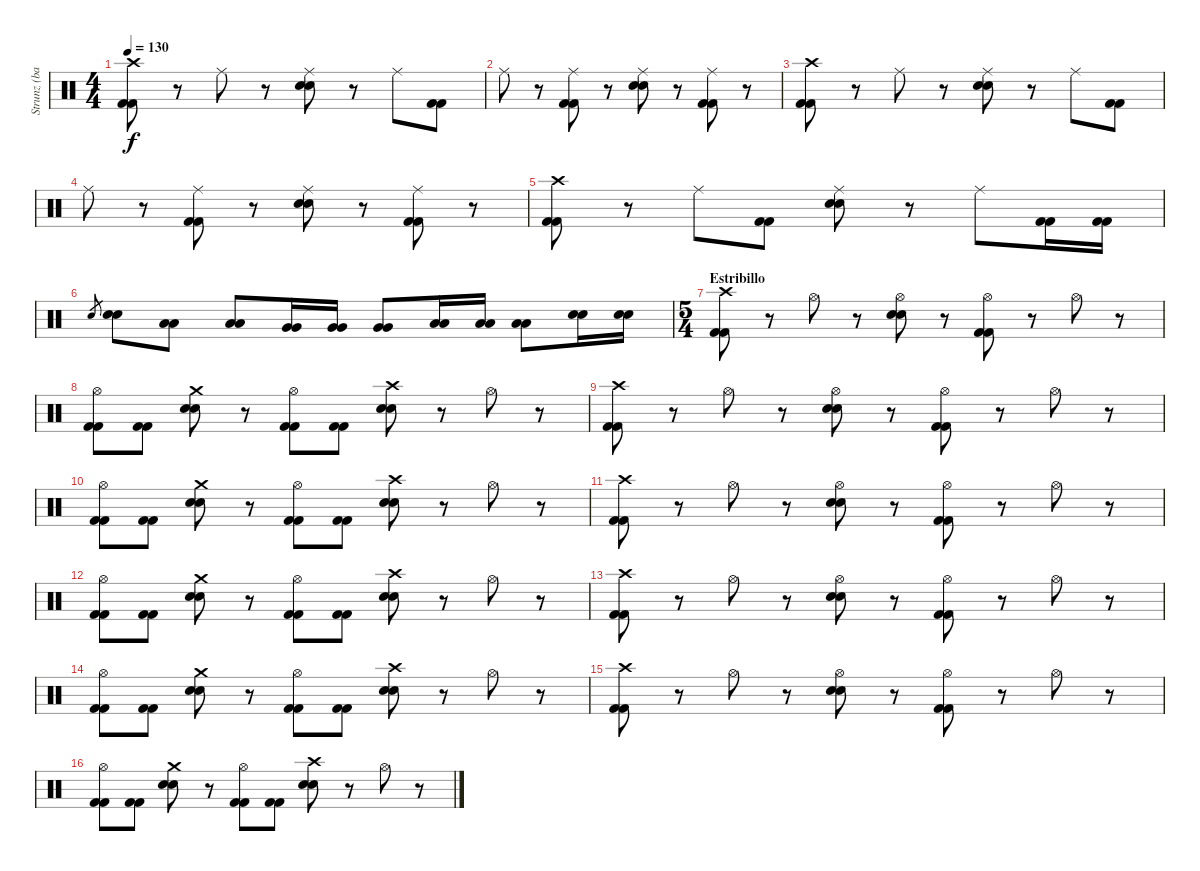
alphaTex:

\track ("Strunz (bateria)" "Strunz (ba") {instrument percussion}
\staff {score}
\articulation defaults
\ts (4 4)
\tempo 130
\clef neutral
\ks c
("Crash high (hit)" "Kick (hit) 2" "Kick (hit) 2").8{dy f} r.8 "Ride (middle)".8 r.8 ("Ride (middle)" "Snare (hit) 2" "Snare (hit) 2").8 r.8 "Ride (middle)".8 ("Kick (hit) 2" "Kick (hit) 2").8 |
"Ride (middle)".8 r.8 ("Ride (middle)" "Kick (hit) 2" "Kick (hit) 2").8 r.8 ("Ride (middle)" "Snare (hit) 2" "Snare (hit) 2").8 r.8 ("Ride (middle)" "Kick (hit) 2" "Kick (hit) 2").8 r.8 |
("Crash high (hit)" "Kick (hit) 2" "Kick (hit) 2").8 r.8 "Ride (middle)".8 r.8 ("Ride (middle)" "Snare (hit) 2" "Snare (hit) 2").8 r.8 "Ride (middle)".8 ("Kick (hit) 2" "Kick (hit) 2").8 |
"Ride (middle)".8 r.8 ("Ride (middle)" "Kick (hit) 2" "Kick (hit) 2").8 r.8 ("Ride (middle)" "Snare (hit) 2" "Snare (hit) 2").8 r.8 ("Ride (middle)" "Kick (hit) 2" "Kick (hit) 2").8 r.8 |
("Crash high (hit)" "Kick (hit) 2" "Kick (hit) 2").8 r.8 "Ride (middle)".8 ("Kick (hit) 2" "Kick (hit) 2").8 ("Ride (middle)" "Snare (hit) 2" "Snare (hit) 2").8 r.8 "Ride (middle)".8 ("Kick (hit) 2" "Kick (hit) 2").16 ("Kick (hit) 2" "Kick (hit) 2").16 |
"Snare (hit) 2".8{gr} ("Snare (hit) 2" "Snare (hit) 2").8 ("Low Tom (hit)" "Low Tom (hit)").8 ("Low Tom (hit)" "Low Tom (hit)").8 ("Very Low Tom (hit)" "Very Low Tom (hit)").16 ("Very Low Tom (hit)" "Very Low Tom (hit)").16 ("Very Low Tom (hit)" "Very Low Tom (hit)").8 ("Low Floor Tom (hit)" "Low Floor Tom (hit)").16 ("Low Floor Tom (hit)" "Low Floor Tom (hit)").16 ("Low Floor Tom (hit)" "Low Floor Tom (hit)").8 ("Snare (hit) 2" "Snare (hit) 2").16 ("Snare (hit) 2" "Snare (hit) 2").16 |
\ts (5 4)
\section ("" "Estribillo")
("Crash high (hit)" "Kick (hit) 2" "Kick (hit) 2").8 r.8 "Hi-Hat (open)".8 r.8 ("Hi-Hat (open)" "Snare (hit) 2" "Snare (hit) 2").8 r.8 ("Hi-Hat (open)" "Kick (hit) 2" "Kick (hit) 2").8 r.8 "Hi-Hat (open)".8 r.8 |
("Hi-Hat (open)" "Kick (hit) 2" "Kick (hit) 2").8 ("Kick (hit) 2" "Kick (hit) 2").8 ("Crash medium (hit)" "Snare (hit) 2" "Snare (hit) 2").8 r.8 ("Hi-Hat (open)" "Kick (hit) 2" "Kick (hit) 2").8 ("Kick (hit) 2" "Kick (hit) 2").8 ("Crash high (hit)" "Snare (hit) 2" "Snare (hit) 2").8 r.8 "Hi-Hat (open)".8 r.8 |
("Crash high (hit)" "Kick (hit) 2" "Kick (hit) 2").8 r.8 "Hi-Hat (open)".8 r.8 ("Hi-Hat (open)" "Snare (hit) 2" "Snare (hit) 2").8 r.8 ("Hi-Hat (open)" "Kick (hit) 2" "Kick (hit) 2").8 r.8 "Hi-Hat (open)".8 r.8 |
("Hi-Hat (open)" "Kick (hit) 2" "Kick (hit) 2").8 ("Kick (hit) 2" "Kick (hit) 2").8 ("Crash medium (hit)" "Snare (hit) 2" "Snare (hit) 2").8 r.8 ("Hi-Hat (open)" "Kick (hit) 2" "Kick (hit) 2").8 ("Kick (hit) 2" "Kick (hit) 2").8 ("Crash high (hit)" "Snare (hit) 2" "Snare (hit) 2").8 r.8 "Hi-Hat (open)".8 r.8 |
("Crash high (hit)" "Kick (hit) 2" "Kick (hit) 2").8 r.8 "Hi-Hat (open)".8 r.8 ("Hi-Hat (open)" "Snare (hit) 2" "Snare (hit) 2").8 r.8 ("Hi-Hat (open)" "Kick (hit) 2" "Kick (hit) 2").8 r.8 "Hi-Hat (open)".8 r.8 |
("Hi-Hat (open)" "Kick (hit) 2" "Kick (hit) 2").8 ("Kick (hit) 2" "Kick (hit) 2").8 ("Crash medium (hit)" "Snare (hit) 2" "Snare (hit) 2").8 r.8 ("Hi-Hat (open)" "Kick (hit) 2" "Kick (hit) 2").8 ("Kick (hit) 2" "Kick (hit) 2").8 ("Crash high (hit)" "Snare (hit) 2" "Snare (hit) 2").8 r.8 "Hi-Hat (open)".8 r.8 |
("Crash high (hit)" "Kick (hit) 2" "Kick (hit) 2").8 r.8 "Hi-Hat (open)".8 r.8 ("Hi-Hat (open)" "Snare (hit) 2" "Snare (hit) 2").8 r.8 ("Hi-Hat (open)" "Kick (hit) 2" "Kick (hit) 2").8 r.8 "Hi-Hat (open)".8 r.8 |
("Hi-Hat (open)" "Kick (hit) 2" "Kick (hit) 2").8{volume 8} ("Kick (hit) 2" "Kick (hit) 2").8 ("Crash medium (hit)" "Snare (hit) 2" "Snare (hit) 2").8 r.8 ("Hi-Hat (open)" "Kick (hit) 2" "Kick (hit) 2").8 ("Kick (hit) 2" "Kick (hit) 2").8 ("Crash high (hit)" "Snare (hit) 2" "Snare (hit) 2").8 r.8 "Hi-Hat (open)".8 r.8 |
("Crash high (hit)" "Kick (hit) 2" "Kick (hit) 2").8 r.8 "Hi-Hat (open)".8 r.8 ("Hi-Hat (open)" "Snare (hit) 2" "Snare (hit) 2").8 r.8 ("Hi-Hat (open)" "Kick (hit) 2" "Kick (hit) 2").8 r.8 "Hi-Hat (open)".8 r.8 |
("Hi-Hat (open)" "Kick (hit) 2" "Kick (hit) 2").8 ("Kick (hit) 2" "Kick (hit) 2").8 ("Crash medium (hit)" "Snare (hit) 2" "Snare (hit) 2").8 r.8 ("Hi-Hat (open)" "Kick (hit) 2" "Kick (hit) 2").8 ("Kick (hit) 2" "Kick (hit) 2").8 ("Crash high (hit)" "Snare (hit) 2" "Snare (hit) 2").8 r.8 "Hi-Hat (open)".8 r.8
